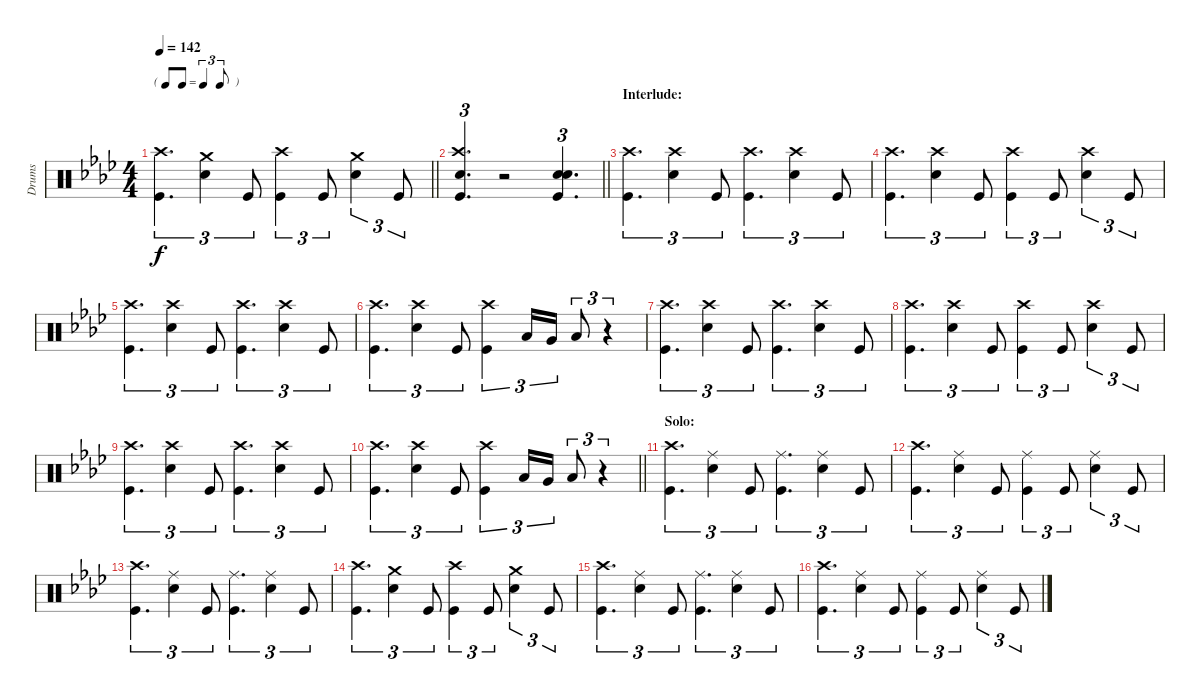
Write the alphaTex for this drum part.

\track ("Drums" "Drums") {instrument percussion}
\staff {score}
\articulation defaults
\ts (4 4)
\tf triplet8th
\tempo 142
\clef neutral
\barLineRight lightlight
\ks ab
("Kick (hit)" "Crash high (hit)").4{d tu (3 2) dy f} ("Snare (hit) 2" "Crash medium (hit)").4{tu (3 2)} "Kick (hit)".8{tu (3 2)} ("Kick (hit)" "Crash high (hit)").4{tu (3 2)} "Kick (hit)".8{tu (3 2)} ("Snare (hit) 2" "Crash medium (hit)").4{tu (3 2)} "Kick (hit)".8{tu (3 2)} |
\barLineRight lightlight
("Kick (hit)" "Snare (hit) 2" "Crash high (hit)").4{d tu (3 2)} r.2 ("Snare (hit) 2" "Snare (hit) 2" "Kick (hit)").4{d tu (3 2)} |
\section ("" "Interlude:")
("Crash high (hit)" "Kick (hit)").4{d tu (3 2)} ("Snare (hit) 2" "Crash high (hit)").4{tu (3 2)} "Kick (hit)".8{tu (3 2)} ("Kick (hit)" "Crash high (hit)").4{d tu (3 2)} ("Snare (hit) 2" "Crash high (hit)").4{tu (3 2)} "Kick (hit)".8{tu (3 2)} |
("Kick (hit)" "Crash high (hit)").4{d tu (3 2)} ("Snare (hit) 2" "Crash high (hit)").4{tu (3 2)} "Kick (hit)".8{tu (3 2)} ("Kick (hit)" "Crash high (hit)").4{tu (3 2)} "Kick (hit)".8{tu (3 2)} ("Snare (hit) 2" "Crash high (hit)").4{tu (3 2)} "Kick (hit)".8{tu (3 2)} |
("Crash high (hit)" "Kick (hit)").4{d tu (3 2)} ("Snare (hit) 2" "Crash high (hit)").4{tu (3 2)} "Kick (hit)".8{tu (3 2)} ("Kick (hit)" "Crash high (hit)").4{d tu (3 2)} ("Snare (hit) 2" "Crash high (hit)").4{tu (3 2)} "Kick (hit)".8{tu (3 2)} |
("Kick (hit)" "Crash high (hit)").4{d tu (3 2)} ("Snare (hit) 2" "Crash high (hit)").4{tu (3 2)} "Kick (hit)".8{tu (3 2)} ("Kick (hit)" "Crash high (hit)").4{tu (3 2)} "Low Floor Tom (hit)".16{tu (3 2)} "Very Low Tom (hit)".16{tu (3 2)} "Low Floor Tom (hit)".8{tu (3 2)} r.4{tu (3 2)} |
("Crash high (hit)" "Kick (hit)").4{d tu (3 2)} ("Snare (hit) 2" "Crash high (hit)").4{tu (3 2)} "Kick (hit)".8{tu (3 2)} ("Kick (hit)" "Crash high (hit)").4{d tu (3 2)} ("Snare (hit) 2" "Crash high (hit)").4{tu (3 2)} "Kick (hit)".8{tu (3 2)} |
("Kick (hit)" "Crash high (hit)").4{d tu (3 2)} ("Snare (hit) 2" "Crash high (hit)").4{tu (3 2)} "Kick (hit)".8{tu (3 2)} ("Kick (hit)" "Crash high (hit)").4{tu (3 2)} "Kick (hit)".8{tu (3 2)} ("Snare (hit) 2" "Crash high (hit)").4{tu (3 2)} "Kick (hit)".8{tu (3 2)} |
("Crash high (hit)" "Kick (hit)").4{d tu (3 2)} ("Snare (hit) 2" "Crash high (hit)").4{tu (3 2)} "Kick (hit)".8{tu (3 2)} ("Kick (hit)" "Crash high (hit)").4{d tu (3 2)} ("Snare (hit) 2" "Crash high (hit)").4{tu (3 2)} "Kick (hit)".8{tu (3 2)} |
\barLineRight lightlight
("Kick (hit)" "Crash high (hit)").4{d tu (3 2)} ("Snare (hit) 2" "Crash high (hit)").4{tu (3 2)} "Kick (hit)".8{tu (3 2)} ("Kick (hit)" "Crash high (hit)").4{tu (3 2)} "Low Floor Tom (hit)".16{tu (3 2)} "Very Low Tom (hit)".16{tu (3 2)} "Low Floor Tom (hit)".8{tu (3 2)} r.4{tu (3 2)} |
\section ("" "Solo:")
("Crash high (hit)" "Kick (hit)").4{d tu (3 2)} ("Snare (hit) 2" "Ride (middle)").4{tu (3 2)} "Kick (hit)".8{tu (3 2)} ("Kick (hit)" "Ride (middle)").4{d tu (3 2)} ("Snare (hit) 2" "Ride (middle)").4{tu (3 2)} "Kick (hit)".8{tu (3 2)} |
("Kick (hit)" "Crash high (hit)").4{d tu (3 2)} ("Snare (hit) 2" "Ride (middle)").4{tu (3 2)} "Kick (hit)".8{tu (3 2)} ("Kick (hit)" "Ride (middle)").4{tu (3 2)} "Kick (hit)".8{tu (3 2)} ("Snare (hit) 2" "Ride (middle)").4{tu (3 2)} "Kick (hit)".8{tu (3 2)} |
("Crash high (hit)" "Kick (hit)").4{d tu (3 2)} ("Snare (hit) 2" "Ride (middle)").4{tu (3 2)} "Kick (hit)".8{tu (3 2)} ("Kick (hit)" "Ride (middle)").4{d tu (3 2)} ("Snare (hit) 2" "Ride (middle)").4{tu (3 2)} "Kick (hit)".8{tu (3 2)} |
("Kick (hit)" "Crash high (hit)").4{d tu (3 2)} ("Snare (hit) 2" "Crash medium (hit)").4{tu (3 2)} "Kick (hit)".8{tu (3 2)} ("Kick (hit)" "Crash high (hit)").4{tu (3 2)} "Kick (hit)".8{tu (3 2)} ("Snare (hit) 2" "Crash medium (hit)").4{tu (3 2)} "Kick (hit)".8{tu (3 2)} |
("Crash high (hit)" "Kick (hit)").4{d tu (3 2)} ("Snare (hit) 2" "Ride (middle)").4{tu (3 2)} "Kick (hit)".8{tu (3 2)} ("Kick (hit)" "Ride (middle)").4{d tu (3 2)} ("Snare (hit) 2" "Ride (middle)").4{tu (3 2)} "Kick (hit)".8{tu (3 2)} |
("Kick (hit)" "Crash high (hit)").4{d tu (3 2)} ("Snare (hit) 2" "Ride (middle)").4{tu (3 2)} "Kick (hit)".8{tu (3 2)} ("Kick (hit)" "Ride (middle)").4{tu (3 2)} "Kick (hit)".8{tu (3 2)} ("Snare (hit) 2" "Ride (middle)").4{tu (3 2)} "Kick (hit)".8{tu (3 2)}
